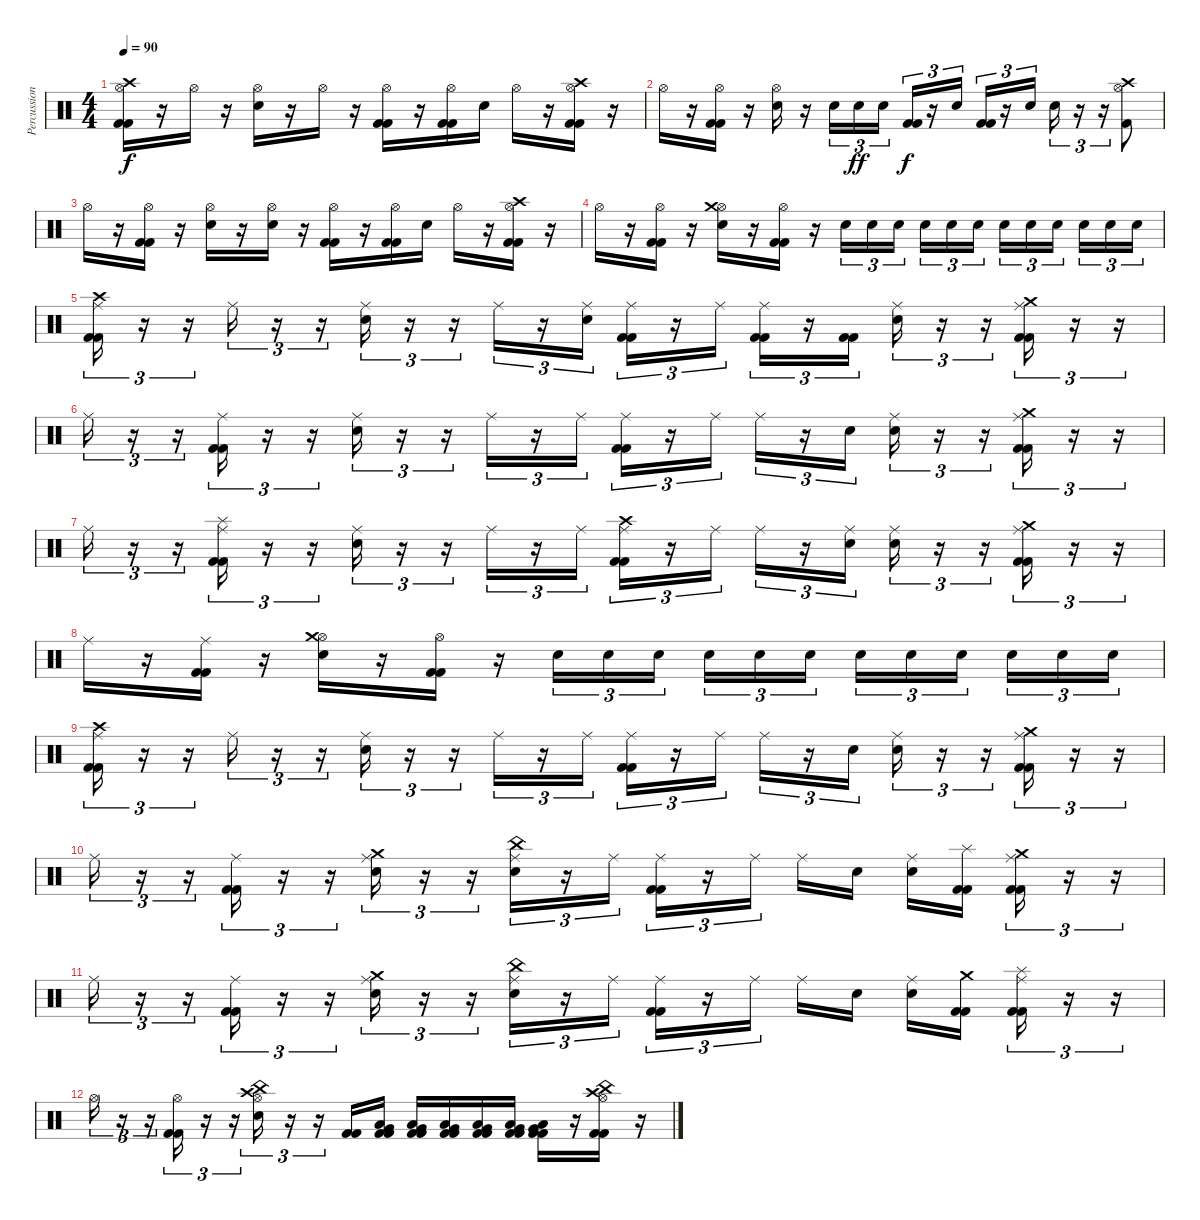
\track ("Percussion" "Percussion") {instrument percussion}
\staff {score}
\articulation defaults
\ts (4 4)
\tempo 90
\clef neutral
\ks c
("Hi-Hat (open)" "Crash high (hit)" "Kick (hit) 2" "Kick (hit) 2").16{dy f} r.16 "Hi-Hat (open)".16 r.16 ("Hi-Hat (open)" "Electric Snare (hit)").16 r.16 "Hi-Hat (open)".16 r.16 ("Hi-Hat (open)" "Kick (hit) 2" "Kick (hit) 2").16 r.16 ("Hi-Hat (open)" "Kick (hit) 2" "Kick (hit) 2").16 "Electric Snare (hit)".16 "Hi-Hat (open)".16 r.16 ("Hi-Hat (open)" "Crash high (hit)" "Kick (hit) 2" "Kick (hit) 2").16 r.16 |
"Hi-Hat (open)".16 r.16 ("Hi-Hat (open)" "Kick (hit) 2" "Kick (hit) 2").16 r.16 ("Hi-Hat (open)" "Electric Snare (hit)").16 r.16 "Electric Snare (hit)".16{tu (3 2)} "Electric Snare (hit)".16{tu (3 2) dy ff} "Electric Snare (hit)".16{tu (3 2)} ("Kick (hit) 2" "Kick (hit) 2").16{tu (3 2) dy f} r.16{tu (3 2)} "Electric Snare (hit)".16{tu (3 2)} ("Kick (hit) 2" "Kick (hit) 2").16{tu (3 2)} r.16{tu (3 2)} "Electric Snare (hit)".16{tu (3 2)} "Electric Snare (hit)".16{tu (3 2)} r.16{tu (3 2)} r.16{tu (3 2)} ("Hi-Hat (open)" "Crash high (hit)" "Kick (hit) 2").8 |
"Hi-Hat (open)".16 r.16 ("Hi-Hat (open)" "Kick (hit) 2" "Kick (hit) 2").16 r.16 ("Hi-Hat (open)" "Electric Snare (hit)").16 r.16 ("Hi-Hat (open)" "Electric Snare (hit)").16 r.16 ("Hi-Hat (open)" "Kick (hit) 2" "Kick (hit) 2").16 r.16 ("Hi-Hat (open)" "Kick (hit) 2" "Kick (hit) 2").16 "Electric Snare (hit)".16 "Hi-Hat (open)".16 r.16 ("Hi-Hat (open)" "Crash high (hit)" "Kick (hit) 2" "Kick (hit) 2").16 r.16 |
"Hi-Hat (open)".16 r.16 ("Hi-Hat (open)" "Kick (hit) 2" "Kick (hit) 2").16 r.16 ("Hi-Hat (open)" "Crash medium (hit)" "Electric Snare (hit)").16 r.16 ("Hi-Hat (open)" "Kick (hit) 2" "Kick (hit) 2").16 r.16 "Electric Snare (hit)".16{tu (3 2)} "Electric Snare (hit)".16{tu (3 2)} "Electric Snare (hit)".16{tu (3 2)} "Electric Snare (hit)".16{tu (3 2)} "Electric Snare (hit)".16{tu (3 2)} "Electric Snare (hit)".16{tu (3 2)} "Electric Snare (hit)".16{tu (3 2)} "Electric Snare (hit)".16{tu (3 2)} "Electric Snare (hit)".16{tu (3 2)} "Electric Snare (hit)".16{tu (3 2)} "Electric Snare (hit)".16{tu (3 2)} "Electric Snare (hit)".16{tu (3 2)} |
("Ride (middle)" "Crash high (hit)" "Kick (hit) 2" "Kick (hit) 2").16{tu (3 2)} r.16{tu (3 2)} r.16{tu (3 2)} "Ride (middle)".16{tu (3 2)} r.16{tu (3 2)} r.16{tu (3 2)} ("Ride (middle)" "Electric Snare (hit)").16{tu (3 2)} r.16{tu (3 2)} r.16{tu (3 2)} "Ride (middle)".16{tu (3 2)} r.16{tu (3 2)} ("Ride (middle)" "Electric Snare (hit)").16{tu (3 2)} ("Ride (middle)" "Kick (hit) 2" "Kick (hit) 2").16{tu (3 2)} r.16{tu (3 2)} "Ride (middle)".16{tu (3 2)} ("Ride (middle)" "Kick (hit) 2" "Kick (hit) 2").16{tu (3 2)} r.16{tu (3 2)} ("Kick (hit) 2" "Kick (hit) 2").16{tu (3 2)} ("Ride (middle)" "Electric Snare (hit)").16{tu (3 2)} r.16{tu (3 2)} r.16{tu (3 2)} ("Ride (middle)" "Crash medium (hit)" "Kick (hit) 2" "Kick (hit) 2").16{tu (3 2)} r.16{tu (3 2)} r.16{tu (3 2)} |
"Ride (middle)".16{tu (3 2)} r.16{tu (3 2)} r.16{tu (3 2)} ("Ride (middle)" "Kick (hit) 2" "Kick (hit) 2").16{tu (3 2)} r.16{tu (3 2)} r.16{tu (3 2)} ("Ride (middle)" "Electric Snare (hit)").16{tu (3 2)} r.16{tu (3 2)} r.16{tu (3 2)} "Ride (middle)".16{tu (3 2)} r.16{tu (3 2)} "Ride (middle)".16{tu (3 2)} ("Ride (middle)" "Kick (hit) 2" "Kick (hit) 2").16{tu (3 2)} r.16{tu (3 2)} "Ride (middle)".16{tu (3 2)} "Ride (middle)".16{tu (3 2)} r.16{tu (3 2)} "Electric Snare (hit)".16{tu (3 2)} ("Ride (middle)" "Electric Snare (hit)").16{tu (3 2)} r.16{tu (3 2)} r.16{tu (3 2)} ("Ride (middle)" "Crash medium (hit)" "Kick (hit) 2" "Kick (hit) 2").16{tu (3 2)} r.16{tu (3 2)} r.16{tu (3 2)} |
"Ride (middle)".16{tu (3 2)} r.16{tu (3 2)} r.16{tu (3 2)} ("Ride (middle)" "Splash (hit)" "Kick (hit) 2" "Kick (hit) 2").16{tu (3 2)} r.16{tu (3 2)} r.16{tu (3 2)} ("Ride (middle)" "Electric Snare (hit)").16{tu (3 2)} r.16{tu (3 2)} r.16{tu (3 2)} "Ride (middle)".16{tu (3 2)} r.16{tu (3 2)} "Ride (middle)".16{tu (3 2)} ("Ride (middle)" "Crash high (hit)" "Kick (hit) 2" "Kick (hit) 2").16{tu (3 2)} r.16{tu (3 2)} "Ride (middle)".16{tu (3 2)} "Ride (middle)".16{tu (3 2)} r.16{tu (3 2)} ("Ride (middle)" "Electric Snare (hit)").16{tu (3 2)} ("Ride (middle)" "Electric Snare (hit)").16{tu (3 2)} r.16{tu (3 2)} r.16{tu (3 2)} ("Ride (middle)" "Crash medium (hit)" "Kick (hit) 2" "Kick (hit) 2").16{tu (3 2)} r.16{tu (3 2)} r.16{tu (3 2)} |
"Ride (middle)".16 r.16 ("Ride (middle)" "Kick (hit) 2" "Kick (hit) 2").16 r.16 ("Hi-Hat (open)" "Crash medium (hit)" "Electric Snare (hit)").16 r.16 ("Hi-Hat (open)" "Kick (hit) 2" "Kick (hit) 2").16 r.16 "Electric Snare (hit)".16{tu (3 2)} "Electric Snare (hit)".16{tu (3 2)} "Electric Snare (hit)".16{tu (3 2)} "Electric Snare (hit)".16{tu (3 2)} "Electric Snare (hit)".16{tu (3 2)} "Electric Snare (hit)".16{tu (3 2)} "Electric Snare (hit)".16{tu (3 2)} "Electric Snare (hit)".16{tu (3 2)} "Electric Snare (hit)".16{tu (3 2)} "Electric Snare (hit)".16{tu (3 2)} "Electric Snare (hit)".16{tu (3 2)} "Electric Snare (hit)".16{tu (3 2)} |
("Ride (middle)" "Crash high (hit)" "Kick (hit) 2" "Kick (hit) 2").16{tu (3 2)} r.16{tu (3 2)} r.16{tu (3 2)} "Ride (middle)".16{tu (3 2)} r.16{tu (3 2)} r.16{tu (3 2)} ("Ride (middle)" "Electric Snare (hit)").16{tu (3 2)} r.16{tu (3 2)} r.16{tu (3 2)} "Ride (middle)".16{tu (3 2)} r.16{tu (3 2)} "Ride (middle)".16{tu (3 2)} ("Ride (middle)" "Kick (hit) 2" "Kick (hit) 2").16{tu (3 2)} r.16{tu (3 2)} "Ride (middle)".16{tu (3 2)} "Ride (middle)".16{tu (3 2)} r.16{tu (3 2)} "Electric Snare (hit)".16{tu (3 2)} ("Ride (middle)" "Electric Snare (hit)").16{tu (3 2)} r.16{tu (3 2)} r.16{tu (3 2)} ("Ride (middle)" "Crash medium (hit)" "Kick (hit) 2" "Kick (hit) 2").16{tu (3 2)} r.16{tu (3 2)} r.16{tu (3 2)} |
"Ride (middle)".16{tu (3 2)} r.16{tu (3 2)} r.16{tu (3 2)} ("Ride (middle)" "Kick (hit) 2" "Kick (hit) 2").16{tu (3 2)} r.16{tu (3 2)} r.16{tu (3 2)} ("Ride (middle)" "Crash medium (hit)" "Electric Snare (hit)").16{tu (3 2)} r.16{tu (3 2)} r.16{tu (3 2)} ("Ride (middle)" "China (hit)" "Electric Snare (hit)").16{tu (3 2)} r.16{tu (3 2)} "Ride (middle)".16{tu (3 2)} ("Ride (middle)" "Kick (hit) 2" "Kick (hit) 2").16{tu (3 2)} r.16{tu (3 2)} "Ride (middle)".16{tu (3 2)} "Ride (middle)".16 "Electric Snare (hit)".16 ("Ride (middle)" "Electric Snare (hit)").16 ("Splash (hit)" "Kick (hit) 2" "Kick (hit) 2").16 ("Ride (middle)" "Crash medium (hit)" "Kick (hit) 2" "Kick (hit) 2").16{tu (3 2)} r.16{tu (3 2)} r.16{tu (3 2)} |
"Ride (middle)".16{tu (3 2)} r.16{tu (3 2)} r.16{tu (3 2)} ("Ride (middle)" "Kick (hit) 2" "Kick (hit) 2").16{tu (3 2)} r.16{tu (3 2)} r.16{tu (3 2)} ("Ride (middle)" "Crash medium (hit)" "Electric Snare (hit)").16{tu (3 2)} r.16{tu (3 2)} r.16{tu (3 2)} ("Ride (middle)" "China (hit)" "Electric Snare (hit)").16{tu (3 2)} r.16{tu (3 2)} "Ride (middle)".16{tu (3 2)} ("Ride (middle)" "Kick (hit) 2" "Kick (hit) 2").16{tu (3 2)} r.16{tu (3 2)} "Ride (middle)".16{tu (3 2)} "Ride (middle)".16 "Electric Snare (hit)".16 ("Ride (middle)" "Electric Snare (hit)").16 ("Crash medium (hit)" "Kick (hit) 2" "Kick (hit) 2").16 ("Ride (middle)" "Splash (hit)" "Kick (hit) 2" "Kick (hit) 2").16{tu (3 2)} r.16{tu (3 2)} r.16{tu (3 2)} |
"Hi-Hat (open)".16{tu (3 2)} r.16{tu (3 2)} r.16{tu (3 2)} ("Hi-Hat (open)" "Kick (hit) 2" "Kick (hit) 2").16{tu (3 2)} r.16{tu (3 2)} r.16{tu (3 2)} ("China (hit)" "Hi-Hat (open)" "Crash high (hit)" "Electric Snare (hit)").16{tu (3 2)} r.16{tu (3 2)} r.16{tu (3 2)} ("Kick (hit) 2" "Kick (hit) 2").16 ("Kick (hit) 2" "Kick (hit) 2" "Low Floor Tom (hit)" "Very Low Tom (hit)").16 ("Kick (hit) 2" "Kick (hit) 2" "Low Floor Tom (hit)" "Very Low Tom (hit)").16 ("Kick (hit) 2" "Kick (hit) 2" "Low Floor Tom (hit)" "Very Low Tom (hit)").16 ("Kick (hit) 2" "Kick (hit) 2" "Low Floor Tom (hit)" "Very Low Tom (hit)").16 ("Kick (hit) 2" "Kick (hit) 2" "Low Floor Tom (hit)" "Very Low Tom (hit)").16 ("Kick (hit) 2" "Kick (hit) 2" "Low Floor Tom (hit)" "Very Low Tom (hit)").16 r.16 ("China (hit)" "Kick (hit) 2" "Crash high (hit)" "Hi-Hat (open)" "Kick (hit) 2").16 r.16
